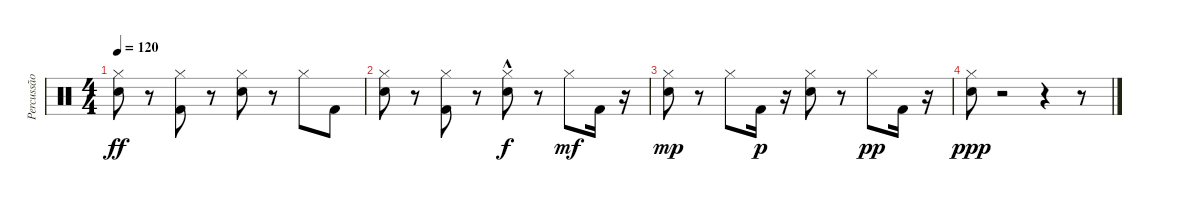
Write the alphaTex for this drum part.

\track ("Percussão" "Percussão") {instrument percussion}
\staff {score}
\articulation defaults
\ts (4 4)
\tempo 120
\clef neutral
\ks c
("Snare (hit) 2" "Hi-Hat (closed)").8{dy ff} r.8 ("Kick (hit) 2" "Hi-Hat (closed)").8 r.8 ("Snare (hit) 2" "Hi-Hat (closed)").8 r.8 "Hi-Hat (closed)".8 "Kick (hit) 2".8 |
("Snare (hit) 2" "Hi-Hat (closed)").8 r.8 ("Kick (hit) 2" "Hi-Hat (closed)").8 r.8 ("Hi-Hat (closed)" "Snare (hit) 2"{hac}).8{dy f} r.8 "Hi-Hat (closed)".8{dy mf} "Kick (hit) 2".16 r.16 |
("Hi-Hat (closed)" "Snare (hit) 2").8{dy mp} r.8 "Hi-Hat (closed)".8 "Kick (hit) 2".16{dy p} r.16 ("Hi-Hat (closed)" "Snare (hit) 2").8 r.8 "Hi-Hat (closed)".8{dy pp} "Kick (hit) 2".16 r.16 |
("Hi-Hat (closed)" "Snare (hit) 2").8{dy ppp} r.2 r.4 r.8
